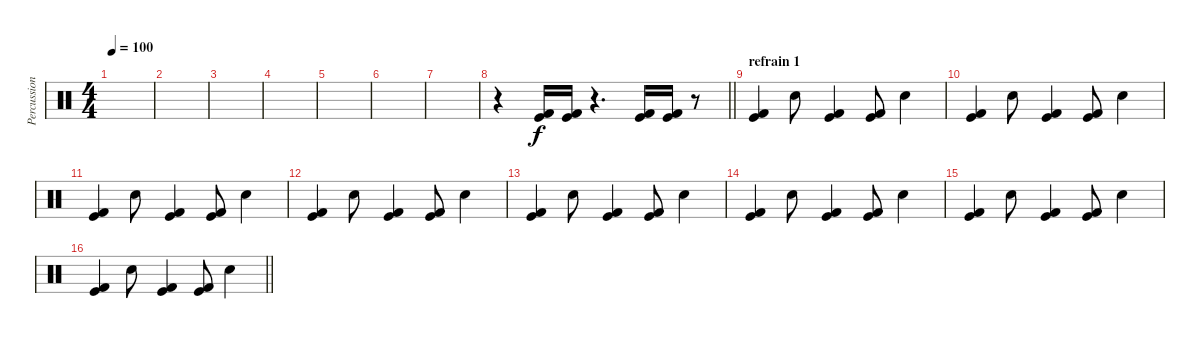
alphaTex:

\track ("Percussions" "Percussion") {instrument percussion}
\staff {score}
\articulation defaults
\ts (4 4)
\tempo 100
\clef neutral
\ks c
|
|
|
|
|
|
|
\barLineRight lightlight
r.4 ("Kick (hit) 2" "Kick (hit)").16 ("Kick (hit) 2" "Kick (hit)").16 r.4{d} ("Kick (hit) 2" "Kick (hit)").16 ("Kick (hit) 2" "Kick (hit)").16 r.8 |
\section ("" "refrain 1")
("Kick (hit)" "Kick (hit) 2").4 "Electric Snare (hit)".8 ("Kick (hit)" "Kick (hit) 2").4 ("Kick (hit)" "Kick (hit) 2").8 "Snare (hit) 2".4 |
("Kick (hit)" "Kick (hit) 2").4 "Electric Snare (hit)".8 ("Kick (hit)" "Kick (hit) 2").4 ("Kick (hit)" "Kick (hit) 2").8 "Snare (hit) 2".4 |
("Kick (hit)" "Kick (hit) 2").4 "Electric Snare (hit)".8 ("Kick (hit)" "Kick (hit) 2").4 ("Kick (hit)" "Kick (hit) 2").8 "Snare (hit) 2".4 |
("Kick (hit)" "Kick (hit) 2").4 "Electric Snare (hit)".8 ("Kick (hit)" "Kick (hit) 2").4 ("Kick (hit)" "Kick (hit) 2").8 "Snare (hit) 2".4 |
("Kick (hit)" "Kick (hit) 2").4 "Electric Snare (hit)".8 ("Kick (hit)" "Kick (hit) 2").4 ("Kick (hit)" "Kick (hit) 2").8 "Snare (hit) 2".4 |
("Kick (hit)" "Kick (hit) 2").4 "Electric Snare (hit)".8 ("Kick (hit)" "Kick (hit) 2").4 ("Kick (hit)" "Kick (hit) 2").8 "Snare (hit) 2".4 |
("Kick (hit)" "Kick (hit) 2").4 "Electric Snare (hit)".8 ("Kick (hit)" "Kick (hit) 2").4 ("Kick (hit)" "Kick (hit) 2").8 "Snare (hit) 2".4 |
\barLineRight lightlight
("Kick (hit)" "Kick (hit) 2").4 "Electric Snare (hit)".8 ("Kick (hit)" "Kick (hit) 2").4 ("Kick (hit)" "Kick (hit) 2").8 "Snare (hit) 2".4
